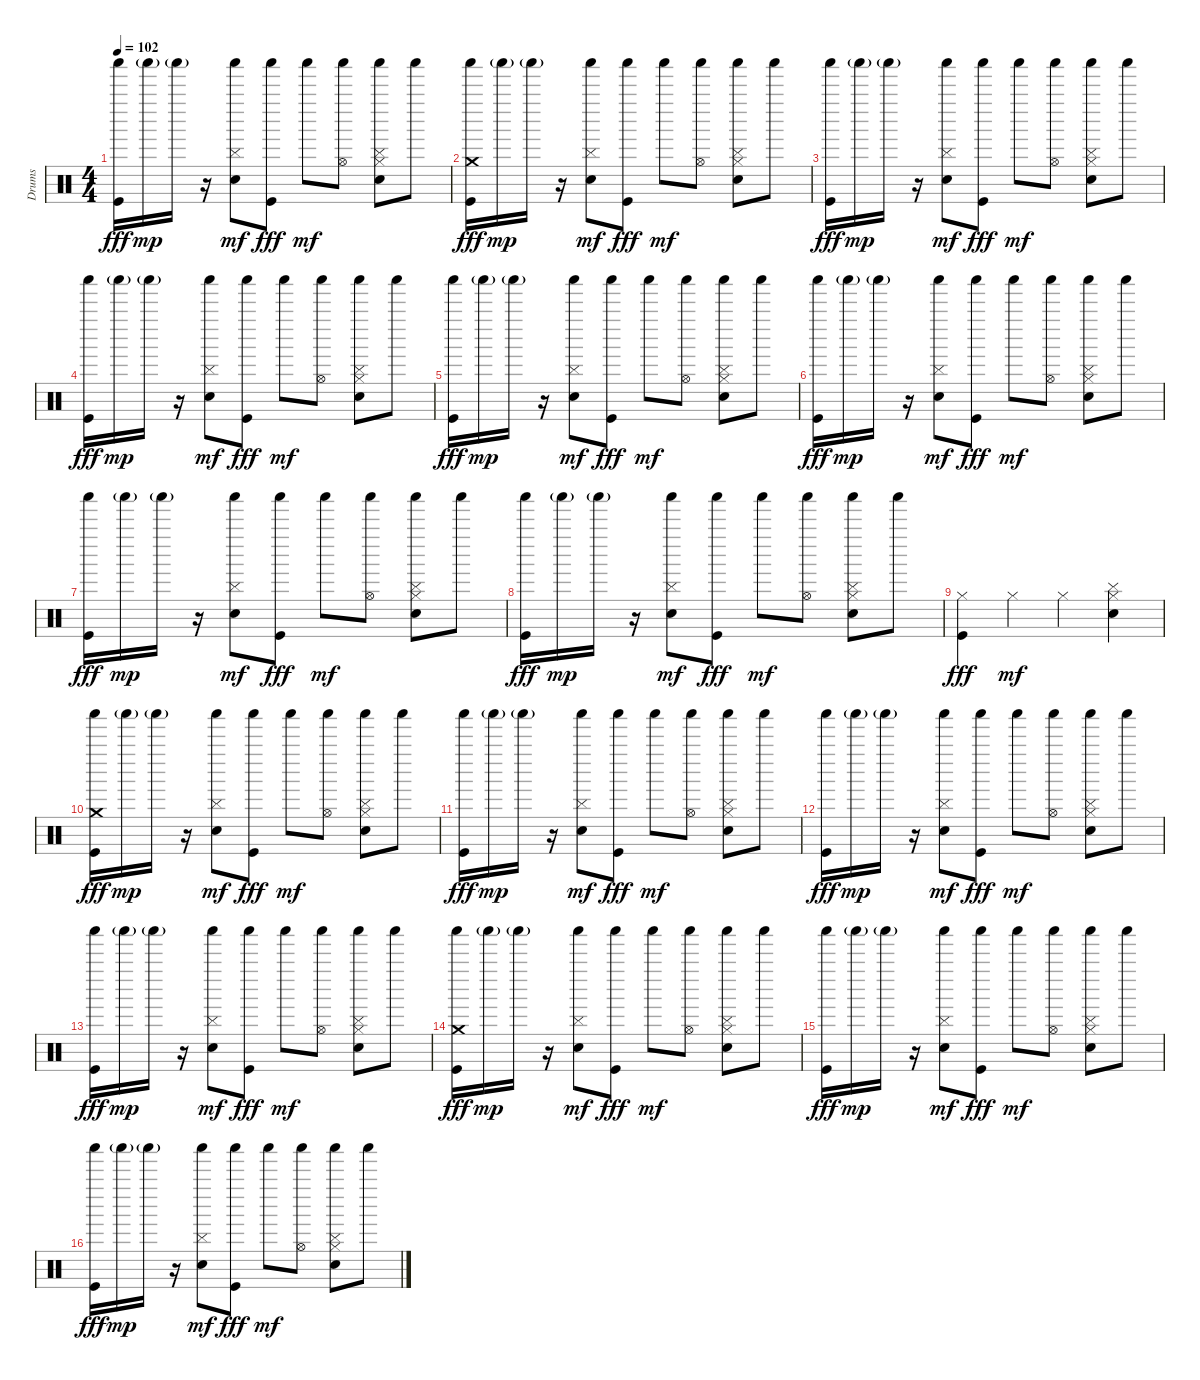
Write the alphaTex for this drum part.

\track ("Drums" "Drums") {instrument percussion}
\staff {score}
\articulation defaults
\ts (4 4)
\tempo 102
\clef neutral
\ks c
("Shaker (hit)" "Kick (hit)").16{dy fff} "Shaker (hit)"{g}.16{dy mp} "Shaker (hit)"{g}.16 r.16 ("Shaker (hit)" "Hand Clap (hit)" "Cymbal (hit)").8{dy mf} ("Shaker (hit)" "Kick (hit)").8{dy fff} "Shaker (hit)".8{dy mf} ("Shaker (hit)" "Hi-Hat (open)").8 ("Hi-Hat (closed)" "Hand Clap (hit)" "Cymbal (hit)" "Shaker (hit)").8 "Shaker (hit)".8 |
("Shaker (hit)" "Crash medium (hit)" "Kick (hit)").16{dy fff} "Shaker (hit)"{g}.16{dy mp} "Shaker (hit)"{g}.16 r.16 ("Shaker (hit)" "Hand Clap (hit)" "Cymbal (hit)").8{dy mf} ("Shaker (hit)" "Kick (hit)").8{dy fff} "Shaker (hit)".8{dy mf} ("Shaker (hit)" "Hi-Hat (open)").8 ("Hi-Hat (closed)" "Hand Clap (hit)" "Cymbal (hit)" "Shaker (hit)").8 "Shaker (hit)".8 |
("Shaker (hit)" "Kick (hit)").16{dy fff} "Shaker (hit)"{g}.16{dy mp} "Shaker (hit)"{g}.16 r.16 ("Shaker (hit)" "Hand Clap (hit)" "Cymbal (hit)").8{dy mf} ("Shaker (hit)" "Kick (hit)").8{dy fff} "Shaker (hit)".8{dy mf} ("Shaker (hit)" "Hi-Hat (open)").8 ("Hi-Hat (closed)" "Hand Clap (hit)" "Cymbal (hit)" "Shaker (hit)").8 "Shaker (hit)".8 |
("Shaker (hit)" "Kick (hit)").16{dy fff} "Shaker (hit)"{g}.16{dy mp} "Shaker (hit)"{g}.16 r.16 ("Shaker (hit)" "Hand Clap (hit)" "Cymbal (hit)").8{dy mf} ("Shaker (hit)" "Kick (hit)").8{dy fff} "Shaker (hit)".8{dy mf} ("Shaker (hit)" "Hi-Hat (open)").8 ("Hi-Hat (closed)" "Hand Clap (hit)" "Cymbal (hit)" "Shaker (hit)").8 "Shaker (hit)".8 |
("Shaker (hit)" "Kick (hit)").16{dy fff} "Shaker (hit)"{g}.16{dy mp} "Shaker (hit)"{g}.16 r.16 ("Shaker (hit)" "Hand Clap (hit)" "Cymbal (hit)").8{dy mf} ("Shaker (hit)" "Kick (hit)").8{dy fff} "Shaker (hit)".8{dy mf} ("Shaker (hit)" "Hi-Hat (open)").8 ("Hi-Hat (closed)" "Hand Clap (hit)" "Cymbal (hit)" "Shaker (hit)").8 "Shaker (hit)".8 |
("Shaker (hit)" "Kick (hit)").16{dy fff} "Shaker (hit)"{g}.16{dy mp} "Shaker (hit)"{g}.16 r.16 ("Shaker (hit)" "Hand Clap (hit)" "Cymbal (hit)").8{dy mf} ("Shaker (hit)" "Kick (hit)").8{dy fff} "Shaker (hit)".8{dy mf} ("Shaker (hit)" "Hi-Hat (open)").8 ("Hi-Hat (closed)" "Hand Clap (hit)" "Cymbal (hit)" "Shaker (hit)").8 "Shaker (hit)".8 |
("Shaker (hit)" "Kick (hit)").16{dy fff} "Shaker (hit)"{g}.16{dy mp} "Shaker (hit)"{g}.16 r.16 ("Shaker (hit)" "Hand Clap (hit)" "Cymbal (hit)").8{dy mf} ("Shaker (hit)" "Kick (hit)").8{dy fff} "Shaker (hit)".8{dy mf} ("Shaker (hit)" "Hi-Hat (open)").8 ("Hi-Hat (closed)" "Hand Clap (hit)" "Cymbal (hit)" "Shaker (hit)").8 "Shaker (hit)".8 |
("Shaker (hit)" "Kick (hit)").16{dy fff} "Shaker (hit)"{g}.16{dy mp} "Shaker (hit)"{g}.16 r.16 ("Shaker (hit)" "Hand Clap (hit)" "Cymbal (hit)").8{dy mf} ("Shaker (hit)" "Kick (hit)").8{dy fff} "Shaker (hit)".8{dy mf} ("Shaker (hit)" "Hi-Hat (open)").8 ("Hi-Hat (closed)" "Hand Clap (hit)" "Cymbal (hit)" "Shaker (hit)").8 "Shaker (hit)".8 |
("Hi-Hat (closed)" "Kick (hit)").4{dy fff} "Hi-Hat (closed)".4{dy mf} "Hi-Hat (closed)".4 ("Hi-Hat (closed)" "Hand Clap (hit)" "Cymbal (hit)").4 |
("Shaker (hit)" "Crash medium (hit)" "Kick (hit)").16{dy fff} "Shaker (hit)"{g}.16{dy mp} "Shaker (hit)"{g}.16 r.16 ("Shaker (hit)" "Hand Clap (hit)" "Cymbal (hit)").8{dy mf} ("Shaker (hit)" "Kick (hit)").8{dy fff} "Shaker (hit)".8{dy mf} ("Shaker (hit)" "Hi-Hat (open)").8 ("Hi-Hat (closed)" "Hand Clap (hit)" "Cymbal (hit)" "Shaker (hit)").8 "Shaker (hit)".8 |
("Shaker (hit)" "Kick (hit)").16{dy fff} "Shaker (hit)"{g}.16{dy mp} "Shaker (hit)"{g}.16 r.16 ("Shaker (hit)" "Hand Clap (hit)" "Cymbal (hit)").8{dy mf} ("Shaker (hit)" "Kick (hit)").8{dy fff} "Shaker (hit)".8{dy mf} ("Shaker (hit)" "Hi-Hat (open)").8 ("Hi-Hat (closed)" "Hand Clap (hit)" "Cymbal (hit)" "Shaker (hit)").8 "Shaker (hit)".8 |
("Shaker (hit)" "Kick (hit)").16{dy fff} "Shaker (hit)"{g}.16{dy mp} "Shaker (hit)"{g}.16 r.16 ("Shaker (hit)" "Hand Clap (hit)" "Cymbal (hit)").8{dy mf} ("Shaker (hit)" "Kick (hit)").8{dy fff} "Shaker (hit)".8{dy mf} ("Shaker (hit)" "Hi-Hat (open)").8 ("Hi-Hat (closed)" "Hand Clap (hit)" "Cymbal (hit)" "Shaker (hit)").8 "Shaker (hit)".8 |
("Shaker (hit)" "Kick (hit)").16{dy fff} "Shaker (hit)"{g}.16{dy mp} "Shaker (hit)"{g}.16 r.16 ("Shaker (hit)" "Hand Clap (hit)" "Cymbal (hit)").8{dy mf} ("Shaker (hit)" "Kick (hit)").8{dy fff} "Shaker (hit)".8{dy mf} ("Shaker (hit)" "Hi-Hat (open)").8 ("Hi-Hat (closed)" "Hand Clap (hit)" "Cymbal (hit)" "Shaker (hit)").8 "Shaker (hit)".8 |
("Shaker (hit)" "Crash medium (hit)" "Kick (hit)").16{dy fff} "Shaker (hit)"{g}.16{dy mp} "Shaker (hit)"{g}.16 r.16 ("Shaker (hit)" "Hand Clap (hit)" "Cymbal (hit)").8{dy mf} ("Shaker (hit)" "Kick (hit)").8{dy fff} "Shaker (hit)".8{dy mf} ("Shaker (hit)" "Hi-Hat (open)").8 ("Hi-Hat (closed)" "Hand Clap (hit)" "Cymbal (hit)" "Shaker (hit)").8 "Shaker (hit)".8 |
("Shaker (hit)" "Kick (hit)").16{dy fff} "Shaker (hit)"{g}.16{dy mp} "Shaker (hit)"{g}.16 r.16 ("Shaker (hit)" "Hand Clap (hit)" "Cymbal (hit)").8{dy mf} ("Shaker (hit)" "Kick (hit)").8{dy fff} "Shaker (hit)".8{dy mf} ("Shaker (hit)" "Hi-Hat (open)").8 ("Hi-Hat (closed)" "Hand Clap (hit)" "Cymbal (hit)" "Shaker (hit)").8 "Shaker (hit)".8 |
("Shaker (hit)" "Kick (hit)").16{dy fff} "Shaker (hit)"{g}.16{dy mp} "Shaker (hit)"{g}.16 r.16 ("Shaker (hit)" "Hand Clap (hit)" "Cymbal (hit)").8{dy mf} ("Shaker (hit)" "Kick (hit)").8{dy fff} "Shaker (hit)".8{dy mf} ("Shaker (hit)" "Hi-Hat (open)").8 ("Hi-Hat (closed)" "Hand Clap (hit)" "Cymbal (hit)" "Shaker (hit)").8 "Shaker (hit)".8
